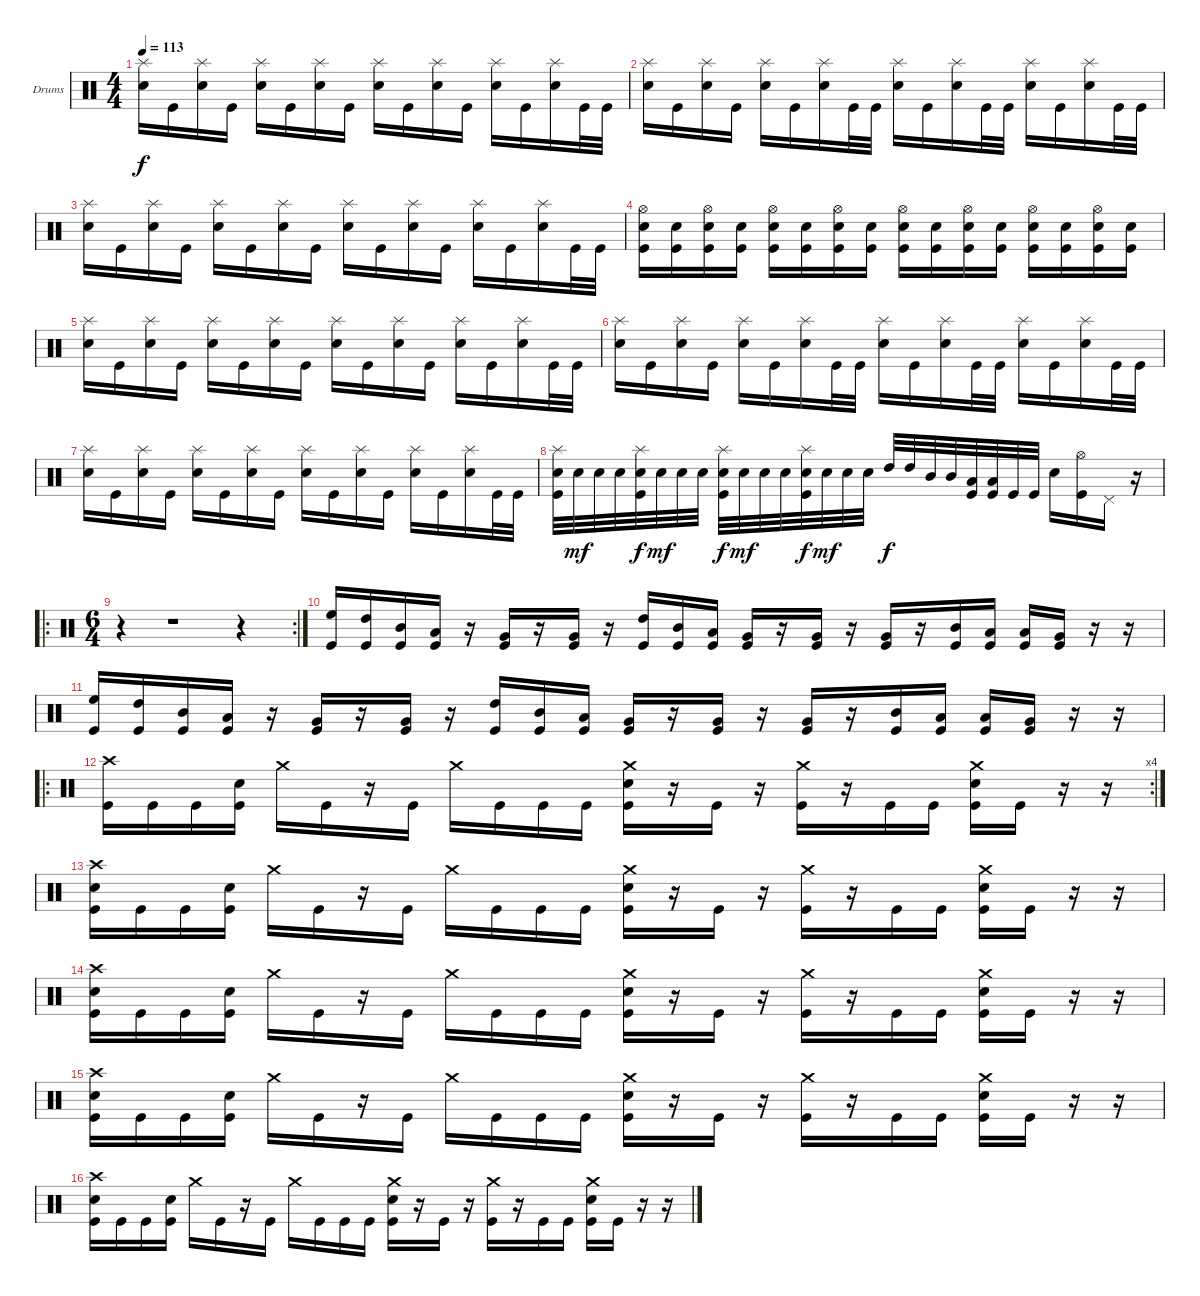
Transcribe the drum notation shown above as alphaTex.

\bracketExtendMode groupsimilarinstruments
\firstSystemTrackNameOrientation horizontal
\otherSystemsTrackNameOrientation horizontal
\track ("Drumkit" "Drums") {instrument percussion}
\staff {score}
\articulation defaults
\ts (4 4)
\tempo 113
\clef neutral
\ks c
("Splash (hit)" "Snare (hit) 2").16{dy f} "Kick (hit)".16 ("Splash (hit)" "Snare (hit) 2").16 "Kick (hit)".16 ("Splash (hit)" "Snare (hit) 2").16 "Kick (hit)".16 ("Splash (hit)" "Snare (hit) 2").16 "Kick (hit)".16 ("Splash (hit)" "Snare (hit) 2").16 "Kick (hit)".16 ("Splash (hit)" "Snare (hit) 2").16 "Kick (hit)".16 ("Splash (hit)" "Snare (hit) 2").16 "Kick (hit)".16 ("Splash (hit)" "Snare (hit) 2").16 "Kick (hit)".32 "Kick (hit)".32 |
("Splash (hit)" "Snare (hit) 2").16 "Kick (hit)".16 ("Splash (hit)" "Snare (hit) 2").16 "Kick (hit)".16 ("Splash (hit)" "Snare (hit) 2").16 "Kick (hit)".16 ("Splash (hit)" "Snare (hit) 2").16 "Kick (hit)".32 "Kick (hit)".32 ("Splash (hit)" "Snare (hit) 2").16 "Kick (hit)".16 ("Splash (hit)" "Snare (hit) 2").16 "Kick (hit)".32 "Kick (hit)".32 ("Splash (hit)" "Snare (hit) 2").16 "Kick (hit)".16 ("Splash (hit)" "Snare (hit) 2").16 "Kick (hit)".32 "Kick (hit)".32 |
("Splash (hit)" "Snare (hit) 2").16 "Kick (hit)".16 ("Splash (hit)" "Snare (hit) 2").16 "Kick (hit)".16 ("Splash (hit)" "Snare (hit) 2").16 "Kick (hit)".16 ("Splash (hit)" "Snare (hit) 2").16 "Kick (hit)".16 ("Splash (hit)" "Snare (hit) 2").16 "Kick (hit)".16 ("Splash (hit)" "Snare (hit) 2").16 "Kick (hit)".16 ("Splash (hit)" "Snare (hit) 2").16 "Kick (hit)".16 ("Splash (hit)" "Snare (hit) 2").16 "Kick (hit)".32 "Kick (hit)".32 |
("Hi-Hat (open)" "Snare (hit) 2" "Kick (hit)").16 ("Snare (hit) 2" "Kick (hit)").16 ("Hi-Hat (open)" "Snare (hit) 2" "Kick (hit)").16 ("Snare (hit) 2" "Kick (hit)").16 ("Hi-Hat (open)" "Snare (hit) 2" "Kick (hit)").16 ("Snare (hit) 2" "Kick (hit)").16 ("Hi-Hat (open)" "Snare (hit) 2" "Kick (hit)").16 ("Snare (hit) 2" "Kick (hit)").16 ("Hi-Hat (open)" "Snare (hit) 2" "Kick (hit)").16 ("Snare (hit) 2" "Kick (hit)").16 ("Hi-Hat (open)" "Snare (hit) 2" "Kick (hit)").16 ("Snare (hit) 2" "Kick (hit)").16 ("Hi-Hat (open)" "Snare (hit) 2" "Kick (hit)").16 ("Snare (hit) 2" "Kick (hit)").16 ("Hi-Hat (open)" "Snare (hit) 2" "Kick (hit)").16 ("Snare (hit) 2" "Kick (hit)").16 |
("Splash (hit)" "Snare (hit) 2").16 "Kick (hit)".16 ("Splash (hit)" "Snare (hit) 2").16 "Kick (hit)".16 ("Splash (hit)" "Snare (hit) 2").16 "Kick (hit)".16 ("Splash (hit)" "Snare (hit) 2").16 "Kick (hit)".16 ("Splash (hit)" "Snare (hit) 2").16 "Kick (hit)".16 ("Splash (hit)" "Snare (hit) 2").16 "Kick (hit)".16 ("Splash (hit)" "Snare (hit) 2").16 "Kick (hit)".16 ("Splash (hit)" "Snare (hit) 2").16 "Kick (hit)".32 "Kick (hit)".32 |
("Splash (hit)" "Snare (hit) 2").16 "Kick (hit)".16 ("Splash (hit)" "Snare (hit) 2").16 "Kick (hit)".16 ("Splash (hit)" "Snare (hit) 2").16 "Kick (hit)".16 ("Splash (hit)" "Snare (hit) 2").16 "Kick (hit)".32 "Kick (hit)".32 ("Splash (hit)" "Snare (hit) 2").16 "Kick (hit)".16 ("Splash (hit)" "Snare (hit) 2").16 "Kick (hit)".32 "Kick (hit)".32 ("Splash (hit)" "Snare (hit) 2").16 "Kick (hit)".16 ("Splash (hit)" "Snare (hit) 2").16 "Kick (hit)".32 "Kick (hit)".32 |
("Splash (hit)" "Snare (hit) 2").16 "Kick (hit)".16 ("Splash (hit)" "Snare (hit) 2").16 "Kick (hit)".16 ("Splash (hit)" "Snare (hit) 2").16 "Kick (hit)".16 ("Splash (hit)" "Snare (hit) 2").16 "Kick (hit)".16 ("Splash (hit)" "Snare (hit) 2").16 "Kick (hit)".16 ("Splash (hit)" "Snare (hit) 2").16 "Kick (hit)".16 ("Splash (hit)" "Snare (hit) 2").16 "Kick (hit)".16 ("Splash (hit)" "Snare (hit) 2").16 "Kick (hit)".32 "Kick (hit)".32 |
("Splash (hit)" "Snare (hit) 2" "Kick (hit)").32 "Snare (hit) 2".32{dy mf} "Snare (hit) 2".32 "Snare (hit) 2".32 ("Splash (hit)" "Snare (hit) 2" "Kick (hit)").32{dy f} "Snare (hit) 2".32{dy mf} "Snare (hit) 2".32 "Snare (hit) 2".32 ("Splash (hit)" "Snare (hit) 2" "Kick (hit)").32{dy f} "Snare (hit) 2".32{dy mf} "Snare (hit) 2".32 "Snare (hit) 2".32 ("Splash (hit)" "Snare (hit) 2" "Kick (hit)").32{dy f} "Snare (hit) 2".32{dy mf} "Snare (hit) 2".32 "Snare (hit) 2".32 "High Tom (hit)".32{dy f} "High Tom (hit)".32 "Mid Tom (hit)".32 "Mid Tom (hit)".32 ("Low Tom (hit)" "Kick (hit)").32 ("Low Tom (hit)" "Kick (hit)").32 "Kick (hit)".32 "Kick (hit)".32 "Snare (hit) 2".16 ("Hi-Hat (open)" "Kick (hit)").16 "Pedal Hi-Hat (hit)".16 r.16 |
\ro
\rc 2
\ts (6 4)
r.4 r.1 r.4 |
("High Floor Tom (hit)" "Kick (hit)").16 ("High Tom (hit)" "Kick (hit)").16 ("Mid Tom (hit)" "Kick (hit)").16 ("Low Tom (hit)" "Kick (hit)").16 r.16 ("Very Low Tom (hit)" "Kick (hit)").16 r.16 ("Very Low Tom (hit)" "Kick (hit)").16 r.16 ("High Tom (hit)" "Kick (hit)").16 ("Mid Tom (hit)" "Kick (hit)").16 ("Low Tom (hit)" "Kick (hit)").16 ("Very Low Tom (hit)" "Kick (hit)").16 r.16 ("Very Low Tom (hit)" "Kick (hit)").16 r.16 ("Very Low Tom (hit)" "Kick (hit)").16 r.16 ("Mid Tom (hit)" "Kick (hit)").16 ("Low Tom (hit)" "Kick (hit)").16 ("Low Tom (hit)" "Kick (hit)").16 ("Very Low Tom (hit)" "Kick (hit)").16 r.16 r.16 |
("High Floor Tom (hit)" "Kick (hit)").16 ("High Tom (hit)" "Kick (hit)").16 ("Mid Tom (hit)" "Kick (hit)").16 ("Low Tom (hit)" "Kick (hit)").16 r.16 ("Very Low Tom (hit)" "Kick (hit)").16 r.16 ("Very Low Tom (hit)" "Kick (hit)").16 r.16 ("High Tom (hit)" "Kick (hit)").16 ("Mid Tom (hit)" "Kick (hit)").16 ("Low Tom (hit)" "Kick (hit)").16 ("Very Low Tom (hit)" "Kick (hit)").16 r.16 ("Very Low Tom (hit)" "Kick (hit)").16 r.16 ("Very Low Tom (hit)" "Kick (hit)").16 r.16 ("Mid Tom (hit)" "Kick (hit)").16 ("Low Tom (hit)" "Kick (hit)").16 ("Low Tom (hit)" "Kick (hit)").16 ("Very Low Tom (hit)" "Kick (hit)").16 r.16 r.16 |
\ro
\rc 4
("Crash high (hit)" "Kick (hit)").16 "Kick (hit)".16 "Kick (hit)".16 ("Snare (hit) 2" "Kick (hit)").16 "Crash medium (hit)".16 "Kick (hit)".16 r.16 "Kick (hit)".16 "Crash medium (hit)".16 "Kick (hit)".16 "Kick (hit)".16 "Kick (hit)".16 ("Crash medium (hit)" "Snare (hit) 2" "Kick (hit)").16 r.16 "Kick (hit)".16 r.16 ("Crash medium (hit)" "Kick (hit)").16 r.16 "Kick (hit)".16 "Kick (hit)".16 ("Crash medium (hit)" "Snare (hit) 2" "Kick (hit)").16 "Kick (hit)".16 r.16 r.16 |
("Crash high (hit)" "Snare (hit) 2" "Kick (hit)").16 "Kick (hit)".16 "Kick (hit)".16 ("Snare (hit) 2" "Kick (hit)").16 "Crash medium (hit)".16 "Kick (hit)".16 r.16 "Kick (hit)".16 "Crash medium (hit)".16 "Kick (hit)".16 "Kick (hit)".16 "Kick (hit)".16 ("Crash medium (hit)" "Snare (hit) 2" "Kick (hit)").16 r.16 "Kick (hit)".16 r.16 ("Crash medium (hit)" "Kick (hit)").16 r.16 "Kick (hit)".16 "Kick (hit)".16 ("Crash medium (hit)" "Snare (hit) 2" "Kick (hit)").16 "Kick (hit)".16 r.16 r.16 |
("Crash high (hit)" "Snare (hit) 2" "Kick (hit)").16 "Kick (hit)".16 "Kick (hit)".16 ("Snare (hit) 2" "Kick (hit)").16 "Crash medium (hit)".16 "Kick (hit)".16 r.16 "Kick (hit)".16 "Crash medium (hit)".16 "Kick (hit)".16 "Kick (hit)".16 "Kick (hit)".16 ("Crash medium (hit)" "Snare (hit) 2" "Kick (hit)").16 r.16 "Kick (hit)".16 r.16 ("Crash medium (hit)" "Kick (hit)").16 r.16 "Kick (hit)".16 "Kick (hit)".16 ("Crash medium (hit)" "Snare (hit) 2" "Kick (hit)").16 "Kick (hit)".16 r.16 r.16 |
("Crash high (hit)" "Snare (hit) 2" "Kick (hit)").16 "Kick (hit)".16 "Kick (hit)".16 ("Snare (hit) 2" "Kick (hit)").16 "Crash medium (hit)".16 "Kick (hit)".16 r.16 "Kick (hit)".16 "Crash medium (hit)".16 "Kick (hit)".16 "Kick (hit)".16 "Kick (hit)".16 ("Crash medium (hit)" "Snare (hit) 2" "Kick (hit)").16 r.16 "Kick (hit)".16 r.16 ("Crash medium (hit)" "Kick (hit)").16 r.16 "Kick (hit)".16 "Kick (hit)".16 ("Crash medium (hit)" "Snare (hit) 2" "Kick (hit)").16 "Kick (hit)".16 r.16 r.16 |
("Crash high (hit)" "Snare (hit) 2" "Kick (hit)").16 "Kick (hit)".16 "Kick (hit)".16 ("Snare (hit) 2" "Kick (hit)").16 "Crash medium (hit)".16 "Kick (hit)".16 r.16 "Kick (hit)".16 "Crash medium (hit)".16 "Kick (hit)".16 "Kick (hit)".16 "Kick (hit)".16 ("Crash medium (hit)" "Snare (hit) 2" "Kick (hit)").16 r.16 "Kick (hit)".16 r.16 ("Crash medium (hit)" "Kick (hit)").16 r.16 "Kick (hit)".16 "Kick (hit)".16 ("Crash medium (hit)" "Snare (hit) 2" "Kick (hit)").16 "Kick (hit)".16 r.16 r.16
